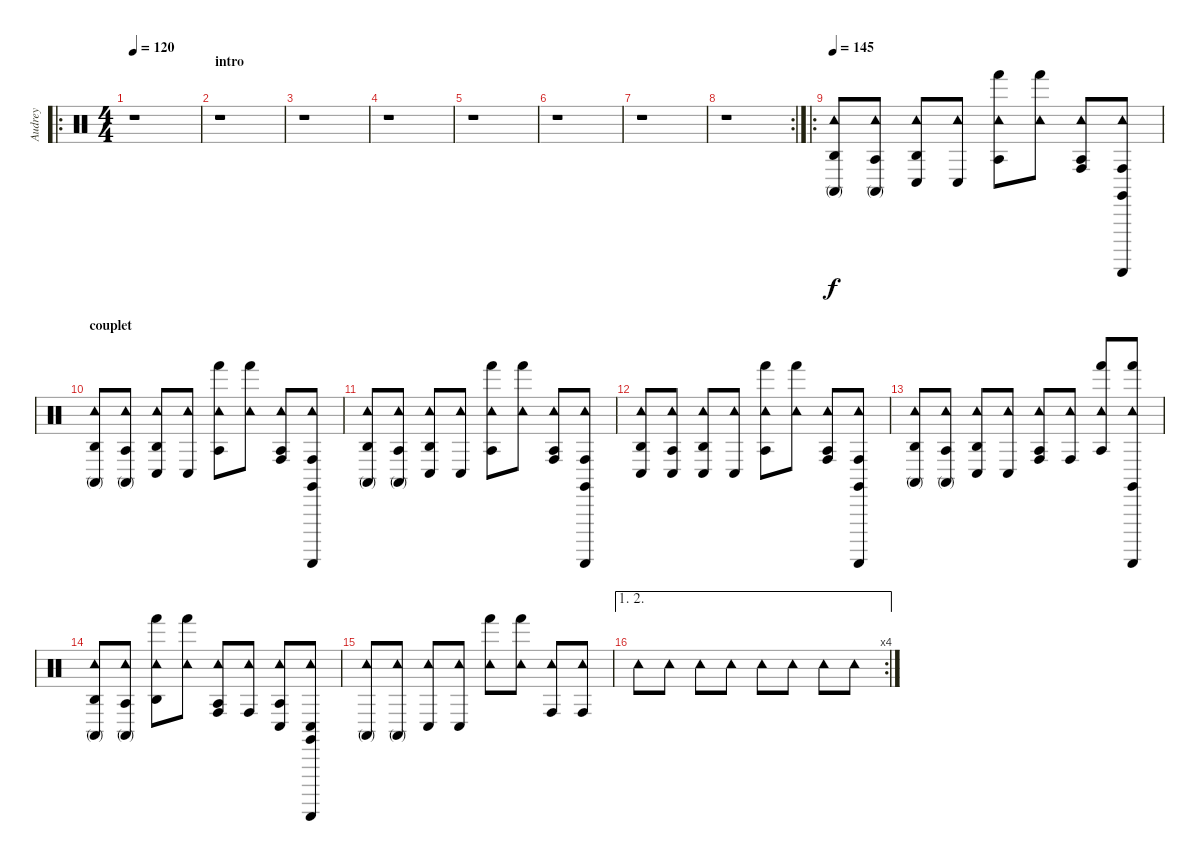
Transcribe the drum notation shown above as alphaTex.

\track ("Audrey" "Audrey") {instrument percussion}
\staff {score}
\articulation defaults
\ro
\ts (4 4)
\tempo 120
\clef neutral
\ks c
r.1{dy f} |
\section ("" "intro")
r.1 |
r.1 |
r.1 |
r.1 |
r.1 |
r.1 |
\rc 2
r.1 |
\ro
\tempo 145
("Agogo high (hit)" "Conga high (mute)" "Tambourine (hit)").8 ("Agogo tow (hit)" "Conga high (mute)" "Tambourine (hit)").8 ("Agogo high (hit)" "Conga low (hit)" "Tambourine (hit)").8 ("Conga low (hit)" "Tambourine (hit)").8 ("Agogo tow (hit)" "Hand (hit)" "Tambourine (hit)").8 ("Hand (hit)" "Tambourine (hit)").8 ("Agogo tow (hit)" "Conga high (hit)" "Tambourine (hit)").8 ("Claves (hit)" "Guiro (scrap-return)" "Conga high (hit)" "Tambourine (hit)").8 |
\section ("" "couplet")
("Agogo high (hit)" "Conga high (mute)" "Tambourine (hit)").8 ("Agogo tow (hit)" "Conga high (mute)" "Tambourine (hit)").8 ("Agogo high (hit)" "Conga low (hit)" "Tambourine (hit)").8 ("Conga low (hit)" "Tambourine (hit)").8 ("Agogo tow (hit)" "Hand (hit)" "Tambourine (hit)").8 ("Hand (hit)" "Tambourine (hit)").8 ("Agogo tow (hit)" "Conga high (hit)" "Tambourine (hit)").8 ("Claves (hit)" "Guiro (scrap-return)" "Conga high (hit)" "Tambourine (hit)").8 |
("Agogo high (hit)" "Conga high (mute)" "Tambourine (hit)").8 ("Agogo tow (hit)" "Tambourine (hit)" "Conga high (mute)").8 ("Agogo high (hit)" "Tambourine (hit)" "Conga low (hit)").8 ("Tambourine (hit)" "Conga low (hit)").8 ("Agogo tow (hit)" "Tambourine (hit)" "Hand (hit)").8 ("Tambourine (hit)" "Hand (hit)").8 ("Agogo tow (hit)" "Tambourine (hit)" "Conga high (hit)").8 ("Claves (hit)" "Guiro (scrap-return)" "Tambourine (hit)" "Conga high (hit)").8 |
("Tambourine (hit)" "Agogo high (hit)" "Conga low (hit)").8 ("Tambourine (hit)" "Agogo tow (hit)" "Conga low (hit)").8 ("Tambourine (hit)" "Agogo high (hit)" "Conga low (hit)").8 ("Tambourine (hit)" "Conga low (hit)").8 ("Tambourine (hit)" "Agogo tow (hit)" "Hand (hit)").8 ("Tambourine (hit)" "Hand (hit)").8 ("Tambourine (hit)" "Agogo tow (hit)" "Conga high (hit)").8 ("Tambourine (hit)" "Claves (hit)" "Guiro (scrap-return)" "Conga high (hit)").8 |
("Tambourine (hit)" "Agogo high (hit)" "Conga high (mute)").8 ("Tambourine (hit)" "Agogo tow (hit)" "Conga high (mute)").8 ("Tambourine (hit)" "Agogo high (hit)" "Conga low (hit)").8 ("Tambourine (hit)" "Conga low (hit)").8 ("Tambourine (hit)" "Agogo tow (hit)" "Conga high (hit)").8 ("Tambourine (hit)" "Conga high (hit)").8 ("Tambourine (hit)" "Agogo tow (hit)" "Hand (hit)").8 ("Tambourine (hit)" "Claves (hit)" "Guiro (scrap-return)" "Hand (hit)").8 |
\section ("" "")
("Tambourine (hit)" "Agogo high (hit)" "Conga high (mute)").8 ("Tambourine (hit)" "Agogo tow (hit)" "Conga high (mute)").8 ("Tambourine (hit)" "Agogo high (hit)" "Hand (hit)").8 ("Tambourine (hit)" "Hand (hit)").8 ("Tambourine (hit)" "Agogo tow (hit)" "Conga high (hit)").8 ("Tambourine (hit)" "Conga high (hit)").8 ("Tambourine (hit)" "Agogo tow (hit)" "Conga low (hit)").8 ("Tambourine (hit)" "Claves (hit)" "Guiro (scrap-return)" "Conga low (hit)").8 |
("Tambourine (hit)" "Conga high (mute)").8 ("Tambourine (hit)" "Conga high (mute)").8 ("Tambourine (hit)" "Conga low (hit)").8 ("Tambourine (hit)" "Conga low (hit)").8 ("Tambourine (hit)" "Hand (hit)").8 ("Tambourine (hit)" "Hand (hit)").8 ("Tambourine (hit)" "Conga high (hit)").8 ("Tambourine (hit)" "Conga high (hit)").8 |
\ae (1 2)
\rc 4 "Tambourine (hit)".8 "Tambourine (hit)".8 "Tambourine (hit)".8 "Tambourine (hit)".8 "Tambourine (hit)".8 "Tambourine (hit)".8 "Tambourine (hit)".8 "Tambourine (hit)".8
